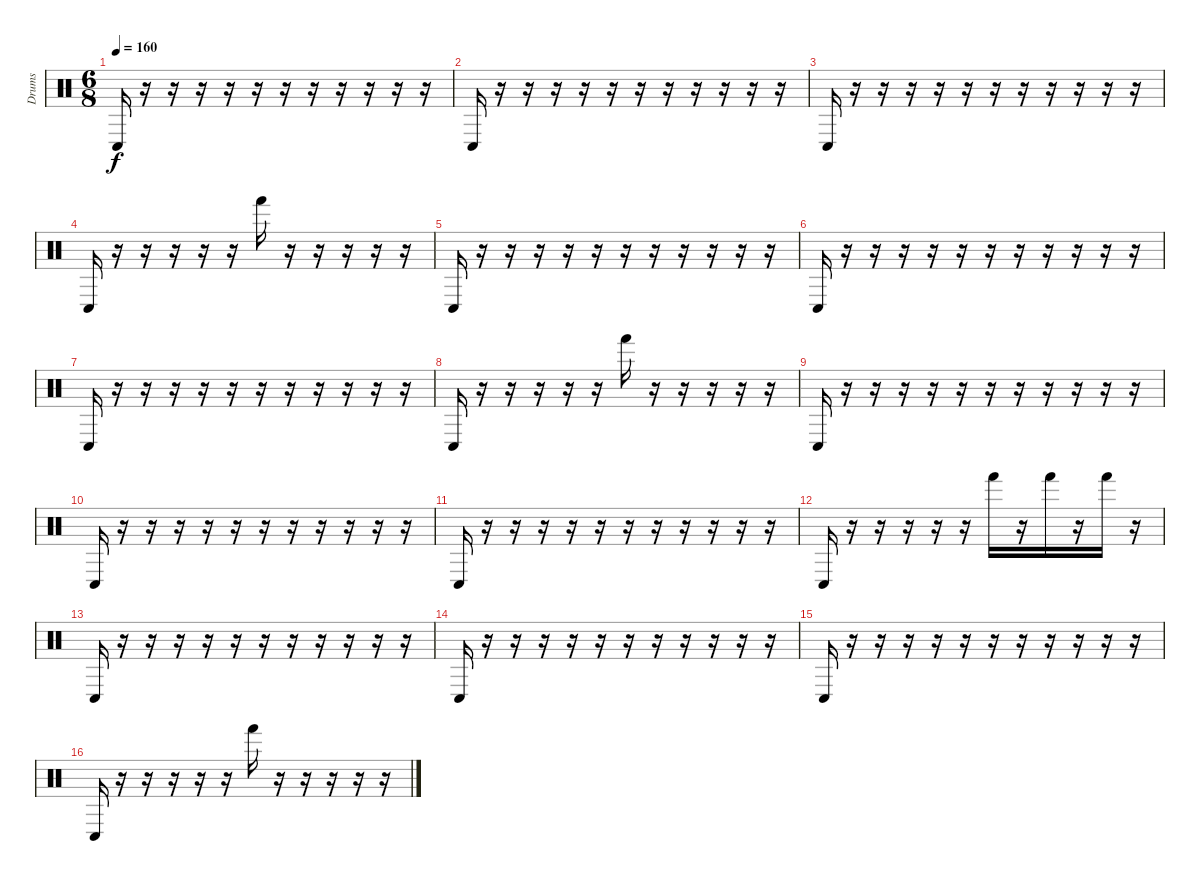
\track ("Drums" "Drums") {instrument percussion}
\staff {score}
\articulation defaults
\ts (6 8)
\tempo 160
\clef neutral
\ks c "Conga low (hit)".16{dy f}
r.16 r.16 r.16 r.16 r.16 r.16 r.16 r.16 r.16 r.16 r.16 |
"Conga low (hit)".16 r.16 r.16 r.16 r.16 r.16 r.16 r.16 r.16 r.16 r.16 r.16 |
"Conga low (hit)".16 r.16 r.16 r.16 r.16 r.16 r.16 r.16 r.16 r.16 r.16 r.16 |
"Conga low (hit)".16 r.16 r.16 r.16 r.16 r.16 "Hand (hit)".16 r.16 r.16 r.16 r.16 r.16 |
"Conga low (hit)".16 r.16 r.16 r.16 r.16 r.16 r.16 r.16 r.16 r.16 r.16 r.16 |
"Conga low (hit)".16 r.16 r.16 r.16 r.16 r.16 r.16 r.16 r.16 r.16 r.16 r.16 |
"Conga low (hit)".16 r.16 r.16 r.16 r.16 r.16 r.16 r.16 r.16 r.16 r.16 r.16 |
"Conga low (hit)".16 r.16 r.16 r.16 r.16 r.16 "Hand (hit)".16 r.16 r.16 r.16 r.16 r.16 |
"Conga low (hit)".16 r.16 r.16 r.16 r.16 r.16 r.16 r.16 r.16 r.16 r.16 r.16 |
"Conga low (hit)".16 r.16 r.16 r.16 r.16 r.16 r.16 r.16 r.16 r.16 r.16 r.16 |
"Conga low (hit)".16 r.16 r.16 r.16 r.16 r.16 r.16 r.16 r.16 r.16 r.16 r.16 |
"Conga low (hit)".16 r.16 r.16 r.16 r.16 r.16 "Hand (hit)".16 r.16 "Hand (hit)".16 r.16 "Hand (hit)".16 r.16 |
"Conga low (hit)".16 r.16 r.16 r.16 r.16 r.16 r.16 r.16 r.16 r.16 r.16 r.16 |
"Conga low (hit)".16 r.16 r.16 r.16 r.16 r.16 r.16 r.16 r.16 r.16 r.16 r.16 |
"Conga low (hit)".16 r.16 r.16 r.16 r.16 r.16 r.16 r.16 r.16 r.16 r.16 r.16 |
"Conga low (hit)".16 r.16 r.16 r.16 r.16 r.16 "Hand (hit)".16 r.16 r.16 r.16 r.16 r.16
